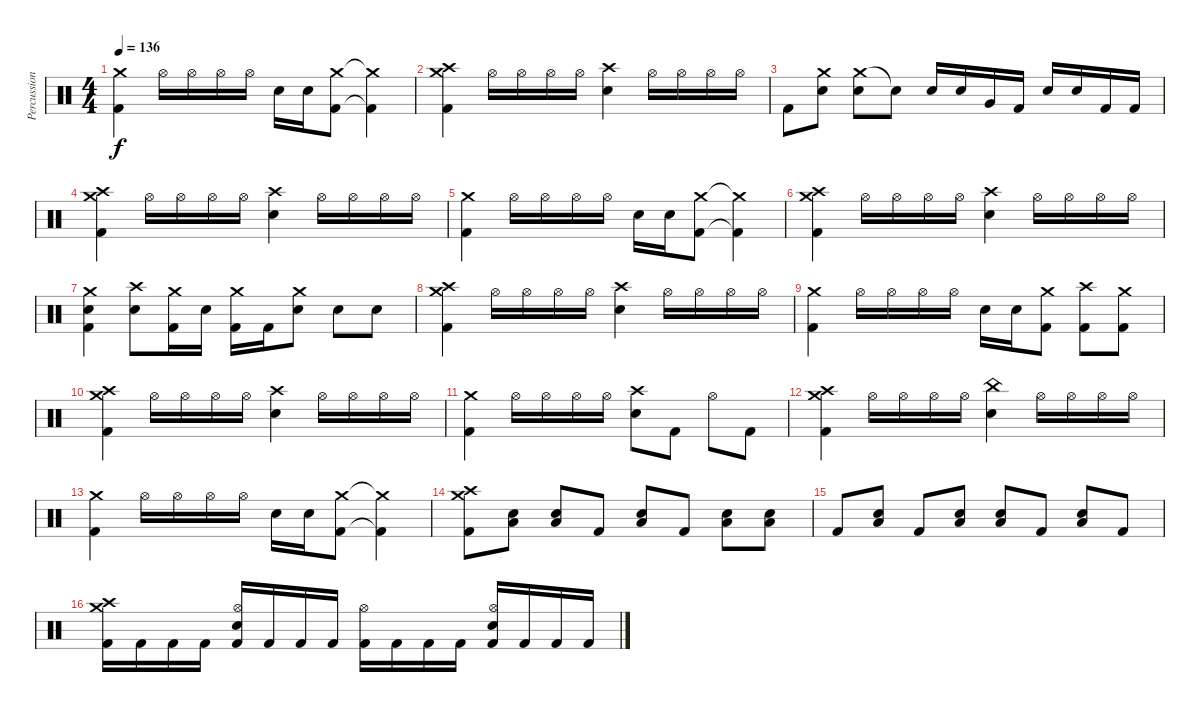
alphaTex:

\track ("Percussion" "Percussion") {instrument percussion}
\staff {score}
\articulation defaults
\ts (4 4)
\tempo 136
\clef neutral
\ks c
("Crash medium (hit)" "Kick (hit) 2").4{dy f} "Hi-Hat (open)".16 "Hi-Hat (open)".16 "Hi-Hat (open)".16 "Hi-Hat (open)".16 "Electric Snare (hit)".16 "Electric Snare (hit)".16 ("Crash medium (hit)" "Kick (hit) 2").8 ("Crash medium (hit)"{t} "Kick (hit) 2"{t}).4 |
("Crash medium (hit)" "Crash high (hit)" "Kick (hit) 2").4 "Hi-Hat (open)".16 "Hi-Hat (open)".16 "Hi-Hat (open)".16 "Hi-Hat (open)".16 ("Crash high (hit)" "Electric Snare (hit)").4 "Hi-Hat (open)".16 "Hi-Hat (open)".16 "Hi-Hat (open)".16 "Hi-Hat (open)".16 |
"Kick (hit) 2".8 ("Crash medium (hit)" "Electric Snare (hit)").8 ("Crash medium (hit)" "Electric Snare (hit)").8 "Electric Snare (hit)"{t}.8 "Electric Snare (hit)".16 "Electric Snare (hit)".16 "Very Low Tom (hit)".16 "Kick (hit) 2".16 "Electric Snare (hit)".16 "Electric Snare (hit)".16 "Kick (hit) 2".16 "Kick (hit) 2".16 |
("Crash medium (hit)" "Crash high (hit)" "Kick (hit) 2").4 "Hi-Hat (open)".16 "Hi-Hat (open)".16 "Hi-Hat (open)".16 "Hi-Hat (open)".16 ("Crash high (hit)" "Electric Snare (hit)").4 "Hi-Hat (open)".16 "Hi-Hat (open)".16 "Hi-Hat (open)".16 "Hi-Hat (open)".16 |
("Crash medium (hit)" "Kick (hit) 2").4 "Hi-Hat (open)".16 "Hi-Hat (open)".16 "Hi-Hat (open)".16 "Hi-Hat (open)".16 "Electric Snare (hit)".16 "Electric Snare (hit)".16 ("Crash medium (hit)" "Kick (hit) 2").8 ("Crash medium (hit)"{t} "Kick (hit) 2"{t}).4 |
("Crash medium (hit)" "Crash high (hit)" "Kick (hit) 2").4 "Hi-Hat (open)".16 "Hi-Hat (open)".16 "Hi-Hat (open)".16 "Hi-Hat (open)".16 ("Crash high (hit)" "Electric Snare (hit)").4 "Hi-Hat (open)".16 "Hi-Hat (open)".16 "Hi-Hat (open)".16 "Hi-Hat (open)".16 |
("Crash medium (hit)" "Electric Snare (hit)" "Kick (hit) 2").4 ("Crash high (hit)" "Electric Snare (hit)").8 ("Crash medium (hit)" "Kick (hit) 2").16 "Electric Snare (hit)".16 ("Crash medium (hit)" "Kick (hit) 2").16 "Kick (hit) 2".16 ("Crash medium (hit)" "Electric Snare (hit)").8 "Electric Snare (hit)".8 "Electric Snare (hit)".8 |
("Crash medium (hit)" "Crash high (hit)" "Kick (hit) 2").4 "Hi-Hat (open)".16 "Hi-Hat (open)".16 "Hi-Hat (open)".16 "Hi-Hat (open)".16 ("Crash high (hit)" "Electric Snare (hit)").4 "Hi-Hat (open)".16 "Hi-Hat (open)".16 "Hi-Hat (open)".16 "Hi-Hat (open)".16 |
("Crash medium (hit)" "Kick (hit) 2").4 "Hi-Hat (open)".16 "Hi-Hat (open)".16 "Hi-Hat (open)".16 "Hi-Hat (open)".16 "Electric Snare (hit)".16 "Electric Snare (hit)".16 ("Crash medium (hit)" "Kick (hit) 2").8 ("Crash high (hit)" "Kick (hit) 2").8 ("Crash medium (hit)" "Kick (hit) 2").8 |
("Crash medium (hit)" "Crash high (hit)" "Kick (hit) 2").4 "Hi-Hat (open)".16 "Hi-Hat (open)".16 "Hi-Hat (open)".16 "Hi-Hat (open)".16 ("Crash high (hit)" "Electric Snare (hit)").4 "Hi-Hat (open)".16 "Hi-Hat (open)".16 "Hi-Hat (open)".16 "Hi-Hat (open)".16 |
("Crash medium (hit)" "Kick (hit) 2").4 "Hi-Hat (open)".16 "Hi-Hat (open)".16 "Hi-Hat (open)".16 "Hi-Hat (open)".16 ("Crash high (hit)" "Electric Snare (hit)").8 "Kick (hit) 2".8 "Hi-Hat (open)".8 "Kick (hit) 2".8 |
("Crash medium (hit)" "Crash high (hit)" "Kick (hit) 2").4 "Hi-Hat (open)".16 "Hi-Hat (open)".16 "Hi-Hat (open)".16 "Hi-Hat (open)".16 ("China (hit)" "Electric Snare (hit)").4 "Hi-Hat (open)".16 "Hi-Hat (open)".16 "Hi-Hat (open)".16 "Hi-Hat (open)".16 |
("Crash medium (hit)" "Kick (hit) 2").4 "Hi-Hat (open)".16 "Hi-Hat (open)".16 "Hi-Hat (open)".16 "Hi-Hat (open)".16 "Electric Snare (hit)".16 "Electric Snare (hit)".16 ("Crash medium (hit)" "Kick (hit) 2").8 ("Crash medium (hit)"{t} "Kick (hit) 2"{t}).4 |
("Crash medium (hit)" "Crash high (hit)" "Kick (hit) 2").8 ("Low Tom (hit)" "Electric Snare (hit)").8 ("Low Tom (hit)" "Electric Snare (hit)").8 "Kick (hit) 2".8 ("Low Tom (hit)" "Electric Snare (hit)").8 "Kick (hit) 2".8 ("Low Tom (hit)" "Electric Snare (hit)").8 ("Low Tom (hit)" "Electric Snare (hit)").8 |
"Kick (hit) 2".8 ("Low Tom (hit)" "Electric Snare (hit)").8 "Kick (hit) 2".8 ("Low Tom (hit)" "Electric Snare (hit)").8 ("Low Tom (hit)" "Electric Snare (hit)").8 "Kick (hit) 2".8 ("Low Tom (hit)" "Electric Snare (hit)").8 "Kick (hit) 2".8 |
("Crash medium (hit)" "Crash high (hit)" "Kick (hit) 2").16 "Kick (hit) 2".16 "Kick (hit) 2".16 "Kick (hit) 2".16 ("Hi-Hat (open)" "Electric Snare (hit)" "Kick (hit) 2").16 "Kick (hit) 2".16 "Kick (hit) 2".16 "Kick (hit) 2".16 ("Hi-Hat (open)" "Kick (hit) 2").16 "Kick (hit) 2".16 "Kick (hit) 2".16 "Kick (hit) 2".16 ("Hi-Hat (open)" "Electric Snare (hit)" "Kick (hit) 2").16 "Kick (hit) 2".16 "Kick (hit) 2".16 "Kick (hit) 2".16
